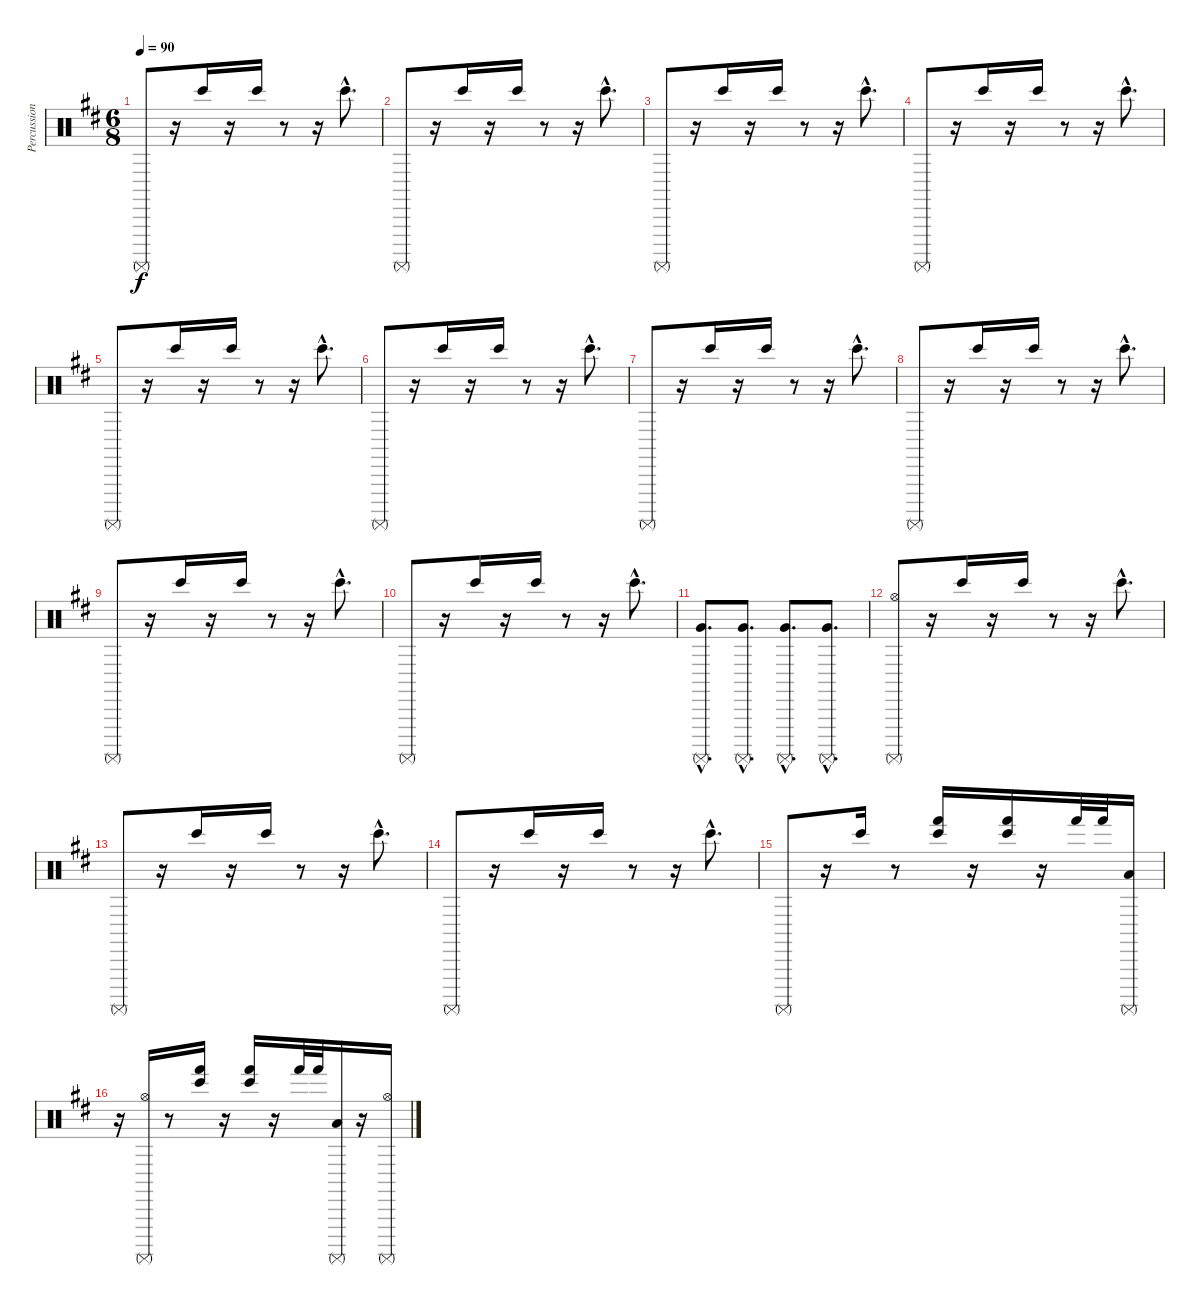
\track ("Percussioni" "Percussion") {instrument percussion}
\staff {score}
\articulation defaults
\ts (6 8)
\tempo 90
\clef neutral
\ks bminor "Surdo (mute)".8{dy f}
r.16 "Bongo High (hit)".16 r.16 "Bongo High (hit)".16 r.8 r.16 "Bongo High (hit)"{hac}.8{d} |
"Surdo (mute)".8 r.16 "Bongo High (hit)".16 r.16 "Bongo High (hit)".16 r.8 r.16 "Bongo High (hit)"{hac}.8{d} |
"Surdo (mute)".8 r.16 "Bongo High (hit)".16 r.16 "Bongo High (hit)".16 r.8 r.16 "Bongo High (hit)"{hac}.8{d} |
"Surdo (mute)".8 r.16 "Bongo High (hit)".16 r.16 "Bongo High (hit)".16 r.8 r.16 "Bongo High (hit)"{hac}.8{d} |
"Surdo (mute)".8 r.16 "Bongo High (hit)".16 r.16 "Bongo High (hit)".16 r.8 r.16 "Bongo High (hit)"{hac}.8{d} |
"Surdo (mute)".8 r.16 "Bongo High (hit)".16 r.16 "Bongo High (hit)".16 r.8 r.16 "Bongo High (hit)"{hac}.8{d} |
"Surdo (mute)".8 r.16 "Bongo High (hit)".16 r.16 "Bongo High (hit)".16 r.8 r.16 "Bongo High (hit)"{hac}.8{d} |
"Surdo (mute)".8 r.16 "Bongo High (hit)".16 r.16 "Bongo High (hit)".16 r.8 r.16 "Bongo High (hit)"{hac}.8{d} |
"Surdo (mute)".8 r.16 "Bongo High (hit)".16 r.16 "Bongo High (hit)".16 r.8 r.16 "Bongo High (hit)"{hac}.8{d} |
"Surdo (mute)".8 r.16 "Bongo High (hit)".16 r.16 "Bongo High (hit)".16 r.8 r.16 "Bongo High (hit)"{hac}.8{d} |
("Surdo (mute)"{hac} "Very Low Tom (hit)"{hac}).8{d} ("Surdo (mute)"{hac} "Very Low Tom (hit)"{hac}).8{d} ("Surdo (mute)"{hac} "Very Low Tom (hit)"{hac}).8{d} ("Surdo (mute)"{hac} "Very Low Tom (hit)"{hac}).8{d} |
("Surdo (mute)" "Hi-Hat (open)").8 r.16 "Bongo High (hit)".16 r.16 "Bongo High (hit)".16 r.8 r.16 "Bongo High (hit)"{hac}.8{d} |
"Surdo (mute)".8 r.16 "Bongo High (hit)".16 r.16 "Bongo High (hit)".16 r.8 r.16 "Bongo High (hit)"{hac}.8{d} |
"Surdo (mute)".8 r.16 "Bongo High (hit)".16 r.16 "Bongo High (hit)".16 r.8 r.16 "Bongo High (hit)"{hac}.8{d} |
"Surdo (mute)".8 r.16 "Bongo High (hit)".16 r.8 ("Bongo High (hit)" "Hand (hit)").16 r.16 ("Bongo High (hit)" "Hand (hit)").16 r.16 "Hand (hit)".32 "Hand (hit)".32 ("Surdo (mute)" "Low Floor Tom (hit)").16 |
r.16 ("Surdo (mute)" "Hi-Hat (open)").16 r.8 ("Bongo High (hit)" "Hand (hit)").16 r.16 ("Bongo High (hit)" "Hand (hit)").16 r.16 "Hand (hit)".32 "Hand (hit)".32 ("Surdo (mute)" "Low Floor Tom (hit)").16 r.16 ("Surdo (mute)" "Hi-Hat (open)").16
